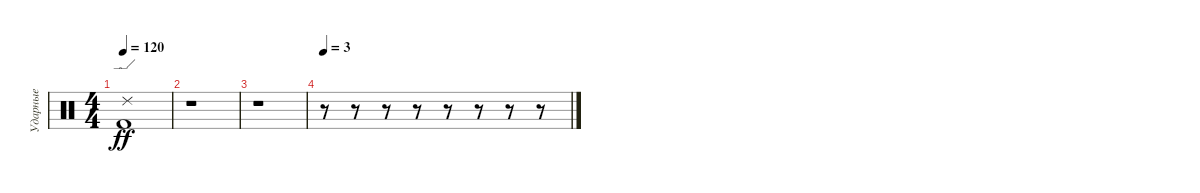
\track ("Ударные" "Ударные") {instrument percussion}
\staff {score}
\articulation defaults
\ts (4 4)
\tempo 120
\clef neutral
\ks c
("Ride (edge) 2" "Kick (hit) 2").1{dy ff} |
r.1 |
r.1 |
\tempo 3
r.8 r.8 r.8 r.8 r.8 r.8 r.8 r.8
